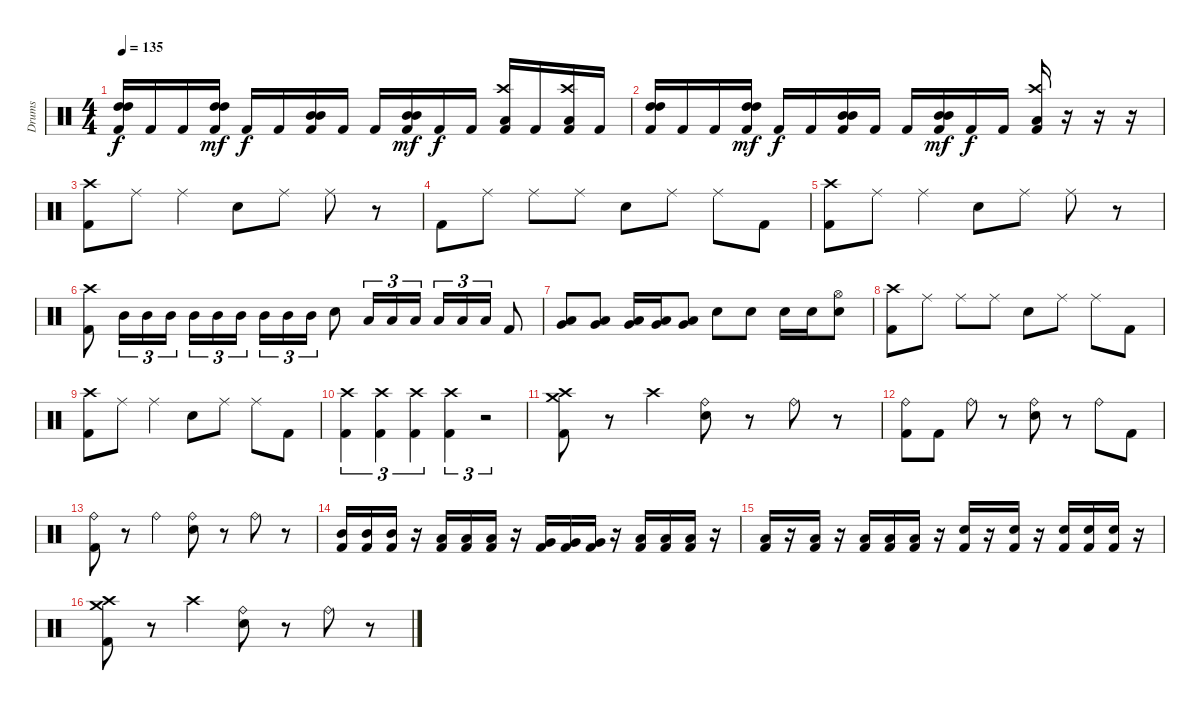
\track ("Drums" "Drums") {instrument percussion}
\staff {score}
\articulation defaults
\ts (4 4)
\tempo 135
\clef neutral
\ks c
("High Tom (hit)" "High Tom (hit)" "Kick (hit) 2").16{dy f} "Kick (hit) 2".16 "Kick (hit) 2".16 ("High Tom (hit)" "High Tom (hit)" "Kick (hit) 2").16{dy mf} "Kick (hit) 2".16{dy f} "Kick (hit) 2".16 ("Mid Tom (hit)" "Mid Tom (hit)" "Kick (hit) 2").16 "Kick (hit) 2".16 "Kick (hit) 2".16 ("Mid Tom (hit)" "Mid Tom (hit)" "Kick (hit) 2").16{dy mf} "Kick (hit) 2".16{dy f} "Kick (hit) 2".16 ("Crash high (hit)" "Low Floor Tom (hit)" "Kick (hit) 2").16 "Kick (hit) 2".16 ("Crash high (hit)" "Low Floor Tom (hit)" "Kick (hit) 2").16 "Kick (hit) 2".16 |
("High Tom (hit)" "High Tom (hit)" "Kick (hit) 2").16 "Kick (hit) 2".16 "Kick (hit) 2".16 ("High Tom (hit)" "High Tom (hit)" "Kick (hit) 2").16{dy mf} "Kick (hit) 2".16{dy f} "Kick (hit) 2".16 ("Mid Tom (hit)" "Mid Tom (hit)" "Kick (hit) 2").16 "Kick (hit) 2".16 "Kick (hit) 2".16 ("Mid Tom (hit)" "Mid Tom (hit)" "Kick (hit) 2").16{dy mf} "Kick (hit) 2".16{dy f} "Kick (hit) 2".16 ("Crash high (hit)" "Low Floor Tom (hit)" "Kick (hit) 2").16 r.16 r.16 r.16 |
("Crash high (hit)" "Kick (hit) 2").8 "Ride (middle)".8 "Ride (middle)".4 "Electric Snare (hit)".8 "Ride (middle)".8 "Ride (middle)".8 r.8 |
"Kick (hit) 2".8 "Ride (middle)".8 "Ride (middle)".8 "Ride (middle)".8 "Electric Snare (hit)".8 "Ride (middle)".8 "Ride (middle)".8 "Kick (hit) 2".8 |
("Crash high (hit)" "Kick (hit) 2").8 "Ride (middle)".8 "Ride (middle)".4 "Electric Snare (hit)".8 "Ride (middle)".8 "Ride (middle)".8 r.8 |
("Crash high (hit)" "Kick (hit) 2").8 "Mid Tom (hit)".16{tu (3 2)} "Mid Tom (hit)".16{tu (3 2)} "Mid Tom (hit)".16{tu (3 2)} "Mid Tom (hit)".16{tu (3 2)} "Mid Tom (hit)".16{tu (3 2)} "Mid Tom (hit)".16{tu (3 2)} "Mid Tom (hit)".16{tu (3 2)} "Mid Tom (hit)".16{tu (3 2)} "Mid Tom (hit)".16{tu (3 2)} "Electric Snare (hit)".8 "Low Tom (hit)".16{tu (3 2)} "Low Tom (hit)".16{tu (3 2)} "Low Tom (hit)".16{tu (3 2)} "Low Tom (hit)".16{tu (3 2)} "Low Tom (hit)".16{tu (3 2)} "Low Tom (hit)".16{tu (3 2)} "Kick (hit) 2".8 |
("Low Tom (hit)" "Very Low Tom (hit)").8 ("Low Tom (hit)" "Very Low Tom (hit)").8 ("Low Tom (hit)" "Very Low Tom (hit)").16 ("Low Tom (hit)" "Very Low Tom (hit)").16 ("Low Tom (hit)" "Very Low Tom (hit)").8 "Electric Snare (hit)".8 "Electric Snare (hit)".8 "Electric Snare (hit)".16 "Electric Snare (hit)".16 ("Hi-Hat (open)" "Electric Snare (hit)").8 |
("Crash high (hit)" "Kick (hit) 2").8 "Ride (middle)".8 "Ride (middle)".8 "Ride (middle)".8 "Electric Snare (hit)".8 "Ride (middle)".8 "Ride (middle)".8 "Kick (hit) 2".8 |
("Crash high (hit)" "Kick (hit) 2").8 "Ride (middle)".8 "Ride (middle)".4 "Electric Snare (hit)".8 "Ride (middle)".8 "Ride (middle)".8 "Kick (hit) 2".8 |
("Crash high (hit)" "Kick (hit) 2").4{tu (3 2)} ("Crash high (hit)" "Kick (hit) 2").4{tu (3 2)} ("Crash high (hit)" "Kick (hit) 2").4{tu (3 2)} ("Crash high (hit)" "Kick (hit) 2").4{tu (3 2)} r.2{tu (3 2)} |
("Crash high (hit)" "Crash medium (hit)" "Kick (hit) 2").8 r.8 "Crash high (hit)".4 ("Ride (bell)" "Electric Snare (hit)").8 r.8 "Ride (bell)".8 r.8 |
("Ride (bell)" "Kick (hit) 2").8 "Kick (hit) 2".8 "Ride (bell)".8 r.8 ("Ride (bell)" "Electric Snare (hit)").8 r.8 "Ride (bell)".8 "Kick (hit) 2".8 |
("Ride (bell)" "Kick (hit) 2").8 r.8 "Ride (bell)".4 ("Ride (bell)" "Electric Snare (hit)").8 r.8 "Ride (bell)".8 r.8 |
("Mid Tom (hit)" "Kick (hit) 2").16 ("Mid Tom (hit)" "Kick (hit) 2").16 ("Mid Tom (hit)" "Kick (hit) 2").16 r.16 ("Low Tom (hit)" "Kick (hit) 2").16 ("Low Tom (hit)" "Kick (hit) 2").16 ("Low Tom (hit)" "Kick (hit) 2").16 r.16 ("Very Low Tom (hit)" "Kick (hit) 2").16 ("Very Low Tom (hit)" "Kick (hit) 2").16 ("Very Low Tom (hit)" "Kick (hit) 2").16 r.16 ("Low Floor Tom (hit)" "Kick (hit) 2").16 ("Low Floor Tom (hit)" "Kick (hit) 2").16 ("Low Floor Tom (hit)" "Kick (hit) 2").16 r.16 |
("Low Floor Tom (hit)" "Kick (hit) 2").16 r.16 ("Low Floor Tom (hit)" "Kick (hit) 2").16 r.16 ("Low Floor Tom (hit)" "Kick (hit) 2").16 ("Low Floor Tom (hit)" "Kick (hit) 2").16 ("Low Floor Tom (hit)" "Kick (hit) 2").16 r.16 ("Electric Snare (hit)" "Kick (hit) 2").16 r.16 ("Electric Snare (hit)" "Kick (hit) 2").16 r.16 ("Electric Snare (hit)" "Kick (hit) 2").16 ("Electric Snare (hit)" "Kick (hit) 2").16 ("Electric Snare (hit)" "Kick (hit) 2").16 r.16 |
("Crash high (hit)" "Crash medium (hit)" "Kick (hit) 2").8 r.8 "Crash high (hit)".4 ("Ride (bell)" "Electric Snare (hit)").8 r.8 "Ride (bell)".8 r.8
